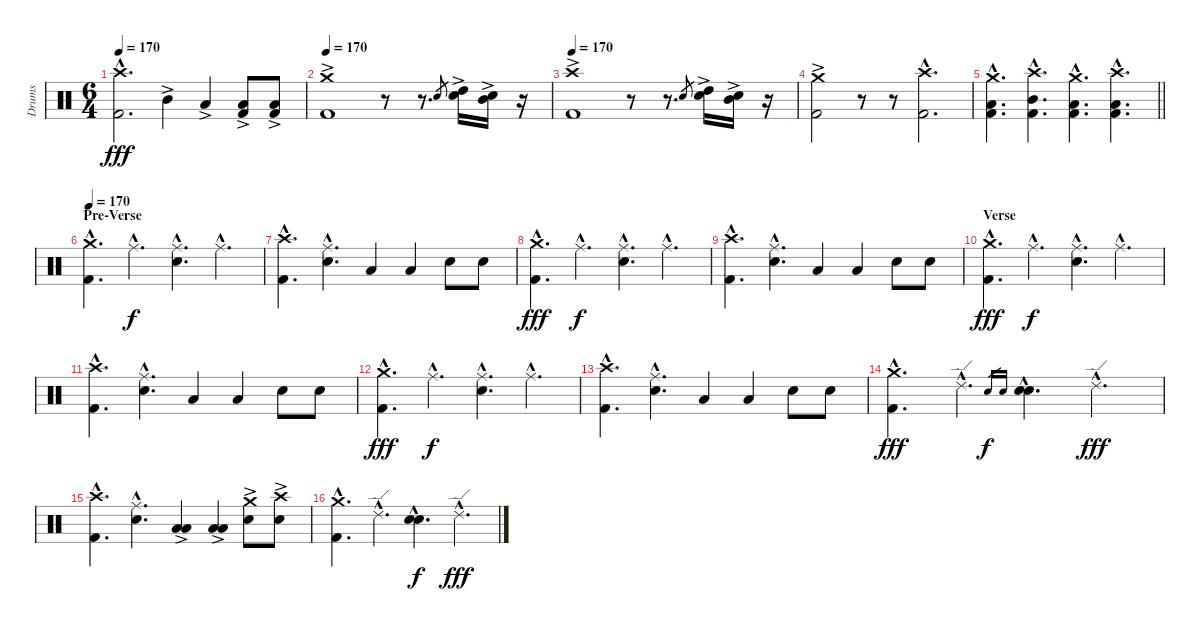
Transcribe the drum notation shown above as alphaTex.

\track ("Drums" "Drums") {instrument percussion}
\staff {score}
\articulation defaults
\ts (6 4)
\tempo 170
\clef neutral
\ks c
("Crash high (hit)"{hac} "Kick (hit) 2"{hac}).2{d dy fff} "Mid Tom (hit)"{ac}.4 "Low Tom (hit)"{ac}.4 ("Low Floor Tom (hit)"{ac} "Kick (hit) 2"{ac}).8 ("Low Floor Tom (hit)" "Kick (hit) 2"{ac}).8 |
\tempo 170
("Crash medium (hit)"{ac} "Kick (hit) 2"{ac}).1 r.8 r.8{d} "Snare (hit) 2".8{gr} ("High Tom (hit)"{ac} "Snare (hit) 2"{ac}).16 ("Mid Tom (hit)"{ac} "Snare (hit) 2"{ac}).16 r.16 |
\tempo 170
("Crash high (hit)"{ac} "Kick (hit) 2"{ac}).1 r.8 r.8{d} "Snare (hit) 2".8{gr} ("High Tom (hit)"{ac} "Snare (hit) 2"{ac}).16 ("Mid Tom (hit)"{ac} "Snare (hit) 2"{ac}).16 r.16 |
("Crash medium (hit)"{ac} "Kick (hit) 2").2 r.8 r.8 ("Crash high (hit)"{hac} "Kick (hit) 2"{hac}).2{d} |
\barLineRight lightlight
("Crash medium (hit)"{hac} "Low Tom (hit)"{hac} "Kick (hit) 2"{hac}).4{d} ("Crash high (hit)"{hac} "Mid Tom (hit)"{hac} "Kick (hit) 2"{hac}).4{d} ("Crash medium (hit)"{hac} "Low Tom (hit)"{hac} "Kick (hit) 2"{hac}).4{d} ("Crash high (hit)"{hac} "Low Floor Tom (hit)"{hac} "Kick (hit) 2"{hac}).4{d} |
\section ("" "Pre-Verse")
\tempo 170
("Crash medium (hit)"{hac} "Kick (hit) 2"{hac}).4{d} "Ride (middle)"{hac}.4{d dy f} ("Ride (middle)"{hac} "Snare (hit) 2"{hac}).4{d} "Ride (middle)"{hac}.4{d} |
("Crash high (hit)"{hac} "Kick (hit) 2"{hac}).4{d} ("Ride (middle)"{hac} "Snare (hit) 2"{hac}).4{d} "Low Tom (hit)".4 "Low Floor Tom (hit)".4 "Snare (hit) 2".8 "Snare (hit) 2".8 |
("Crash medium (hit)"{hac} "Kick (hit) 2"{hac}).4{d dy fff} "Ride (middle)"{hac}.4{d dy f} ("Ride (middle)"{hac} "Snare (hit) 2"{hac}).4{d} "Ride (middle)"{hac}.4{d} |
("Crash high (hit)"{hac} "Kick (hit) 2"{hac}).4{d} ("Ride (middle)"{hac} "Snare (hit) 2"{hac}).4{d} "Low Tom (hit)".4 "Low Floor Tom (hit)".4 "Snare (hit) 2".8 "Snare (hit) 2".8 |
\section ("" "Verse")
("Crash medium (hit)"{hac} "Kick (hit) 2"{hac}).4{d dy fff} "Ride (middle)"{hac}.4{d dy f} ("Ride (middle)"{hac} "Snare (hit) 2"{hac}).4{d} "Ride (middle)"{hac}.4{d} |
("Crash high (hit)"{hac} "Kick (hit) 2"{hac}).4{d} ("Ride (middle)"{hac} "Snare (hit) 2"{hac}).4{d} "Low Tom (hit)".4 "Low Floor Tom (hit)".4 "Snare (hit) 2".8 "Snare (hit) 2".8 |
("Crash medium (hit)"{hac} "Kick (hit) 2"{hac}).4{d dy fff} "Ride (middle)"{hac}.4{d dy f} ("Ride (middle)"{hac} "Snare (hit) 2"{hac}).4{d} "Ride (middle)"{hac}.4{d} |
("Crash high (hit)"{hac} "Kick (hit) 2"{hac}).4{d} ("Ride (middle)"{hac} "Snare (hit) 2"{hac}).4{d} "Low Tom (hit)".4 "Low Floor Tom (hit)".4 "Snare (hit) 2".8 "Snare (hit) 2".8 |
("Crash medium (hit)"{hac} "Kick (hit) 2"{hac}).4{d dy fff} "Ride (edge) 2"{hac}.4{d} "Snare (hit) 2".16{gr dy f} "Snare (hit) 2".16{gr} ("Snare (hit) 2"{hac} "Snare (hit) 2"{hac}).4{d} "Ride (edge) 2"{hac}.4{d dy fff} |
("Crash high (hit)"{hac} "Kick (hit) 2"{hac}).4{d} ("Ride (middle)"{hac} "Snare (hit) 2"{hac}).4{d} ("Low Tom (hit)"{ac} "Low Tom (hit)"{ac}).4 ("Low Floor Tom (hit)"{ac} "Low Floor Tom (hit)"{ac}).4 ("Crash medium (hit)"{ac} "Snare (hit) 2"{ac}).8 ("Crash high (hit)"{ac} "Snare (hit) 2"{ac}).8 |
("Crash medium (hit)"{hac} "Kick (hit) 2"{hac}).4{d} "Ride (edge) 2"{hac}.4{d} ("Snare (hit) 2"{hac} "Snare (hit) 2"{hac}).4{d dy f} "Ride (edge) 2"{hac}.4{d dy fff}
